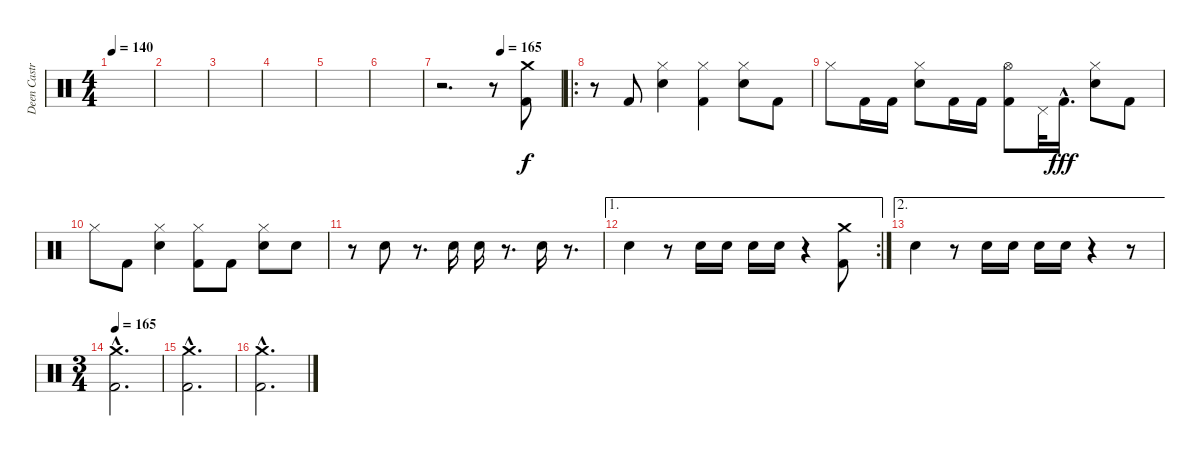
\track ("Deen Castronovo" "Deen Castr") {instrument percussion}
\staff {score}
\articulation defaults
\ts (4 4)
\tempo 140
\clef neutral
\ks c
|
|
|
|
|
|
\tempo (165 0.5)
r.2{d} r.8 ("Kick (hit) 2" "Crash medium (hit)").8 |
\ro
r.8 "Kick (hit) 2".8 ("Electric Snare (hit)" "Hi-Hat (closed)").4 ("Kick (hit) 2" "Hi-Hat (closed)").4 ("Electric Snare (hit)" "Hi-Hat (closed)").8 "Kick (hit) 2".8 |
"Hi-Hat (closed)".8 "Kick (hit) 2".16 "Kick (hit) 2".16 ("Electric Snare (hit)" "Hi-Hat (closed)").8 "Kick (hit) 2".16 "Kick (hit) 2".16 ("Kick (hit) 2" "Hi-Hat (open)").8 "Pedal Hi-Hat (hit)".32{dy f} "Kick (hit) 2"{hac}.16{d dy fff} ("Electric Snare (hit)" "Hi-Hat (closed)").8 "Kick (hit) 2".8 |
"Hi-Hat (closed)".8 "Kick (hit) 2".8 ("Electric Snare (hit)" "Hi-Hat (closed)").4 ("Kick (hit) 2" "Hi-Hat (closed)").8 "Kick (hit) 2".8 ("Electric Snare (hit)" "Hi-Hat (closed)").8 "Electric Snare (hit)".8 |
r.8 "Electric Snare (hit)".8 r.8{d} "Electric Snare (hit)".16 "Electric Snare (hit)".16 r.8{d} "Electric Snare (hit)".16 r.8{d} |
\ae 1
\rc 2 "Electric Snare (hit)".4
r.8 "Electric Snare (hit)".16 "Electric Snare (hit)".16 "Electric Snare (hit)".16 "Electric Snare (hit)".16 r.4 ("Kick (hit) 2" "Crash medium (hit)").8 |
\ae 2 "Electric Snare (hit)".4
r.8 "Electric Snare (hit)".16 "Electric Snare (hit)".16 "Electric Snare (hit)".16 "Electric Snare (hit)".16 r.4 r.8 |
\ts (3 4)
\tempo 165
("Kick (hit) 2"{hac} "Crash medium (hit)"{hac}).2{d} |
("Kick (hit) 2"{hac} "Crash medium (hit)"{hac}).2{d} |
("Kick (hit) 2"{hac} "Crash medium (hit)"{hac}).2{d}
